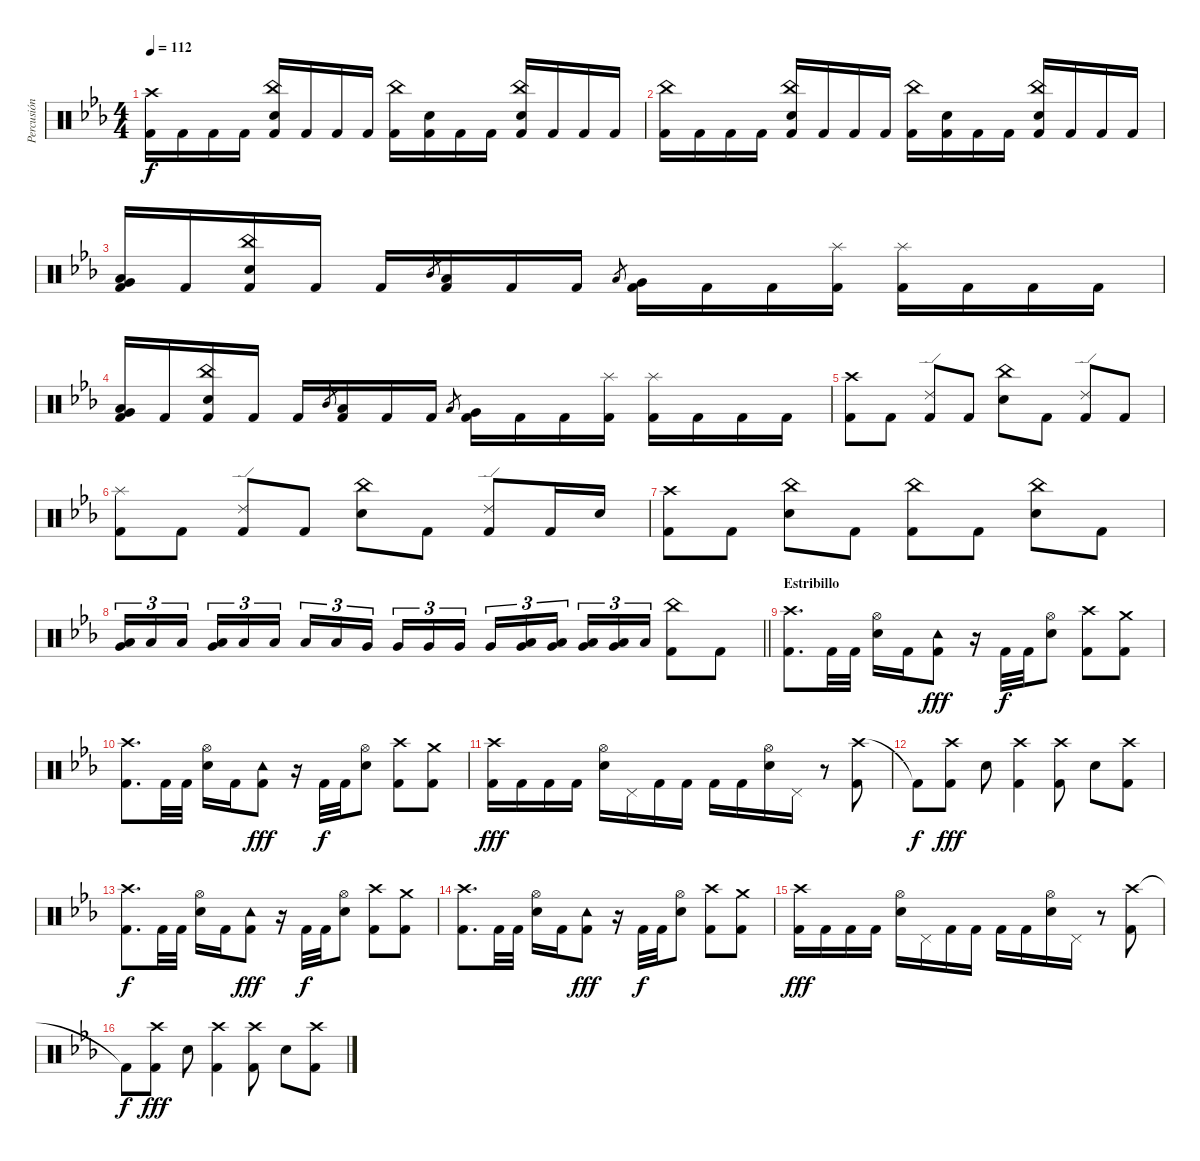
\track ("Percusión" "Percusión") {instrument percussion}
\staff {score}
\articulation defaults
\ts (4 4)
\tempo 112
\clef neutral
\ks cminor
("Crash high (hit)" "Kick (hit) 2").16{dy f} "Kick (hit) 2".16 "Kick (hit) 2".16 "Kick (hit) 2".16 ("China (hit)" "Snare (hit) 2" "Kick (hit) 2").16 "Kick (hit) 2".16 "Kick (hit) 2".16 "Kick (hit) 2".16 ("China (hit)" "Kick (hit) 2").16 ("Snare (hit) 2" "Kick (hit) 2").16 "Kick (hit) 2".16 "Kick (hit) 2".16 ("China (hit)" "Snare (hit) 2" "Kick (hit) 2").16 "Kick (hit) 2".16 "Kick (hit) 2".16 "Kick (hit) 2".16 |
("China (hit)" "Kick (hit) 2").16 "Kick (hit) 2".16 "Kick (hit) 2".16 "Kick (hit) 2".16 ("China (hit)" "Snare (hit) 2" "Kick (hit) 2").16 "Kick (hit) 2".16 "Kick (hit) 2".16 "Kick (hit) 2".16 ("China (hit)" "Kick (hit) 2").16 ("Snare (hit) 2" "Kick (hit) 2").16 "Kick (hit) 2".16 "Kick (hit) 2".16 ("China (hit)" "Snare (hit) 2" "Kick (hit) 2").16 "Kick (hit) 2".16 "Kick (hit) 2".16 "Kick (hit) 2".16 |
("Low Floor Tom (hit)" "Very Low Tom (hit)" "Kick (hit) 2").16 "Kick (hit) 2".16 ("China (hit)" "Snare (hit) 2" "Kick (hit) 2").16 "Kick (hit) 2".16 "Kick (hit) 2".16 "Mid Tom (hit)".8{gr} ("Low Tom (hit)" "Kick (hit) 2").16 "Kick (hit) 2".16 "Kick (hit) 2".16 "Low Tom (hit)".8{gr} ("Very Low Tom (hit)" "Kick (hit) 2").16 "Kick (hit) 2".16 "Kick (hit) 2".16 ("Splash (hit)" "Kick (hit) 2").16 ("Splash (hit)" "Kick (hit) 2").16 "Kick (hit) 2".16 "Kick (hit) 2".16 "Kick (hit) 2".16 |
("Low Floor Tom (hit)" "Very Low Tom (hit)" "Kick (hit) 2").16 "Kick (hit) 2".16 ("China (hit)" "Snare (hit) 2" "Kick (hit) 2").16 "Kick (hit) 2".16 "Kick (hit) 2".16 "Mid Tom (hit)".8{gr} ("Low Tom (hit)" "Kick (hit) 2").16 "Kick (hit) 2".16 "Kick (hit) 2".16 "Low Tom (hit)".8{gr} ("Very Low Tom (hit)" "Kick (hit) 2").16 "Kick (hit) 2".16 "Kick (hit) 2".16 ("Splash (hit)" "Kick (hit) 2").16 ("Splash (hit)" "Kick (hit) 2").16 "Kick (hit) 2".16 "Kick (hit) 2".16 "Kick (hit) 2".16 |
("Crash high (hit)" "Kick (hit) 2").8 "Kick (hit) 2".8 ("Ride (edge) 2" "Kick (hit) 2").8 "Kick (hit) 2".8 ("China (hit)" "Snare (hit) 2").8 "Kick (hit) 2".8 ("Ride (edge) 2" "Kick (hit) 2").8 "Kick (hit) 2".8 |
("Splash (hit)" "Kick (hit) 2").8 "Kick (hit) 2".8 ("Ride (edge) 2" "Kick (hit) 2").8 "Kick (hit) 2".8 ("China (hit)" "Snare (hit) 2").8 "Kick (hit) 2".8 ("Ride (edge) 2" "Kick (hit) 2").8 "Kick (hit) 2".16 "Snare (hit) 2".16 |
("Crash high (hit)" "Kick (hit) 2").8 "Kick (hit) 2".8 ("China (hit)" "Snare (hit) 2").8 "Kick (hit) 2".8 ("China (hit)" "Kick (hit) 2").8 "Kick (hit) 2".8 ("China (hit)" "Snare (hit) 2").8 "Kick (hit) 2".8 |
\barLineRight lightlight
("Very Low Tom (hit)" "Low Tom (hit)").16{tu (3 2)} "Low Tom (hit)".16{tu (3 2)} "Low Tom (hit)".16{tu (3 2) beam splitsecondary} ("Very Low Tom (hit)" "Low Tom (hit)").16{tu (3 2)} "Low Tom (hit)".16{tu (3 2)} "Low Tom (hit)".16{tu (3 2)} "Low Tom (hit)".16{tu (3 2)} "Low Tom (hit)".16{tu (3 2)} "Very Low Tom (hit)".16{tu (3 2) beam splitsecondary} "Very Low Tom (hit)".16{tu (3 2)} "Very Low Tom (hit)".16{tu (3 2)} "Very Low Tom (hit)".16{tu (3 2)} "Very Low Tom (hit)".16{tu (3 2)} ("Very Low Tom (hit)" "Low Floor Tom (hit)").16{tu (3 2)} ("Very Low Tom (hit)" "Low Floor Tom (hit)").16{tu (3 2) beam splitsecondary} ("Very Low Tom (hit)" "Low Floor Tom (hit)").16{tu (3 2)} ("Very Low Tom (hit)" "Low Floor Tom (hit)").16{tu (3 2)} "Low Floor Tom (hit)".16{tu (3 2)} ("China (hit)" "Kick (hit) 2").8 "Kick (hit) 2".8 |
\section ("" "Estribillo")
("Crash high (hit)" "Kick (hit) 2").8{d} "Kick (hit) 2".32 "Kick (hit) 2".32 ("Hi-Hat (open)" "Snare (hit) 2").16 "Kick (hit) 2".16 ("Tambourine (hit)" "Kick (hit) 2").8{dy fff} r.16 "Kick (hit) 2".32{dy f} "Kick (hit) 2".32 ("Hi-Hat (open)" "Snare (hit) 2").8 ("Crash high (hit)" "Kick (hit) 2").8 ("Crash medium (hit)" "Kick (hit) 2").8 |
("Crash high (hit)" "Kick (hit) 2").8{d} "Kick (hit) 2".32 "Kick (hit) 2".32 ("Hi-Hat (open)" "Snare (hit) 2").16 "Kick (hit) 2".16 ("Tambourine (hit)" "Kick (hit) 2").8{dy fff} r.16 "Kick (hit) 2".32{dy f} "Kick (hit) 2".32 ("Hi-Hat (open)" "Snare (hit) 2").8 ("Crash high (hit)" "Kick (hit) 2").8 ("Crash medium (hit)" "Kick (hit) 2").8 |
("Crash high (hit)" "Kick (hit) 2").16{dy fff} "Kick (hit) 2".16 "Kick (hit) 2".16 "Kick (hit) 2".16 ("Hi-Hat (open)" "Snare (hit) 2").16 "Pedal Hi-Hat (hit)".16 "Kick (hit) 2".16 "Kick (hit) 2".16 "Kick (hit) 2".16 "Kick (hit) 2".16 ("Hi-Hat (open)" "Snare (hit) 2").16 "Pedal Hi-Hat (hit)".16 r.8 ("Crash high (hit)" "Kick (hit) 2").8 |
"Kick (hit) 2"{t}.8{dy f} ("Crash high (hit)" "Kick (hit) 2").8{dy fff} "Snare (hit) 2".8 ("Crash high (hit)" "Kick (hit) 2").4 ("Crash high (hit)" "Kick (hit) 2").8 "Snare (hit) 2".8 ("Crash high (hit)" "Kick (hit) 2").8 |
("Crash high (hit)" "Kick (hit) 2").8{d dy f} "Kick (hit) 2".32 "Kick (hit) 2".32 ("Hi-Hat (open)" "Snare (hit) 2").16 "Kick (hit) 2".16 ("Tambourine (hit)" "Kick (hit) 2").8{dy fff} r.16 "Kick (hit) 2".32{dy f} "Kick (hit) 2".32 ("Hi-Hat (open)" "Snare (hit) 2").8 ("Crash high (hit)" "Kick (hit) 2").8 ("Crash medium (hit)" "Kick (hit) 2").8 |
("Crash high (hit)" "Kick (hit) 2").8{d} "Kick (hit) 2".32 "Kick (hit) 2".32 ("Hi-Hat (open)" "Snare (hit) 2").16 "Kick (hit) 2".16 ("Tambourine (hit)" "Kick (hit) 2").8{dy fff} r.16 "Kick (hit) 2".32{dy f} "Kick (hit) 2".32 ("Hi-Hat (open)" "Snare (hit) 2").8 ("Crash high (hit)" "Kick (hit) 2").8 ("Crash medium (hit)" "Kick (hit) 2").8 |
("Crash high (hit)" "Kick (hit) 2").16{dy fff} "Kick (hit) 2".16 "Kick (hit) 2".16 "Kick (hit) 2".16 ("Hi-Hat (open)" "Snare (hit) 2").16 "Pedal Hi-Hat (hit)".16 "Kick (hit) 2".16 "Kick (hit) 2".16 "Kick (hit) 2".16 "Kick (hit) 2".16 ("Hi-Hat (open)" "Snare (hit) 2").16 "Pedal Hi-Hat (hit)".16 r.8 ("Crash high (hit)" "Kick (hit) 2").8 |
"Kick (hit) 2"{t}.8{dy f} ("Crash high (hit)" "Kick (hit) 2").8{dy fff} "Snare (hit) 2".8 ("Crash high (hit)" "Kick (hit) 2").4 ("Crash high (hit)" "Kick (hit) 2").8 "Snare (hit) 2".8 ("Crash high (hit)" "Kick (hit) 2").8
